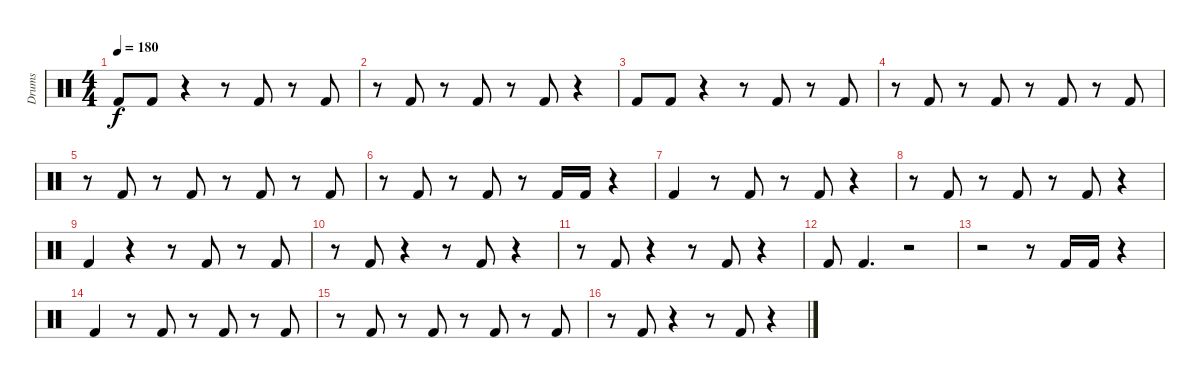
\track ("Drums" "Drums") {instrument percussion}
\staff {score}
\articulation defaults
\ts (4 4)
\tempo 180
\clef neutral
\ks c "Kick (hit) 2".8{dy f} "Kick (hit) 2".8
r.4 r.8 "Kick (hit) 2".8 r.8 "Kick (hit) 2".8 |
r.8 "Kick (hit) 2".8 r.8 "Kick (hit) 2".8 r.8 "Kick (hit) 2".8 r.4 |
"Kick (hit) 2".8 "Kick (hit) 2".8 r.4 r.8 "Kick (hit) 2".8 r.8 "Kick (hit) 2".8 |
r.8 "Kick (hit) 2".8 r.8 "Kick (hit) 2".8 r.8 "Kick (hit) 2".8 r.8 "Kick (hit) 2".8 |
r.8 "Kick (hit) 2".8 r.8 "Kick (hit) 2".8 r.8 "Kick (hit) 2".8 r.8 "Kick (hit) 2".8 |
r.8 "Kick (hit) 2".8 r.8 "Kick (hit) 2".8 r.8 "Kick (hit) 2".16 "Kick (hit) 2".16 r.4 |
"Kick (hit) 2".4 r.8 "Kick (hit) 2".8 r.8 "Kick (hit) 2".8 r.4 |
r.8 "Kick (hit) 2".8 r.8 "Kick (hit) 2".8 r.8 "Kick (hit) 2".8 r.4 |
"Kick (hit) 2".4 r.4 r.8 "Kick (hit) 2".8 r.8 "Kick (hit) 2".8 |
r.8 "Kick (hit) 2".8 r.4 r.8 "Kick (hit) 2".8 r.4 |
r.8 "Kick (hit) 2".8 r.4 r.8 "Kick (hit) 2".8 r.4 |
"Kick (hit) 2".8 "Kick (hit) 2".4{d} r.2 |
r.2 r.8 "Kick (hit) 2".16 "Kick (hit) 2".16 r.4 |
"Kick (hit) 2".4 r.8 "Kick (hit) 2".8 r.8 "Kick (hit) 2".8 r.8 "Kick (hit) 2".8 |
r.8 "Kick (hit) 2".8 r.8 "Kick (hit) 2".8 r.8 "Kick (hit) 2".8 r.8 "Kick (hit) 2".8 |
r.8 "Kick (hit) 2".8 r.4 r.8 "Kick (hit) 2".8 r.4
